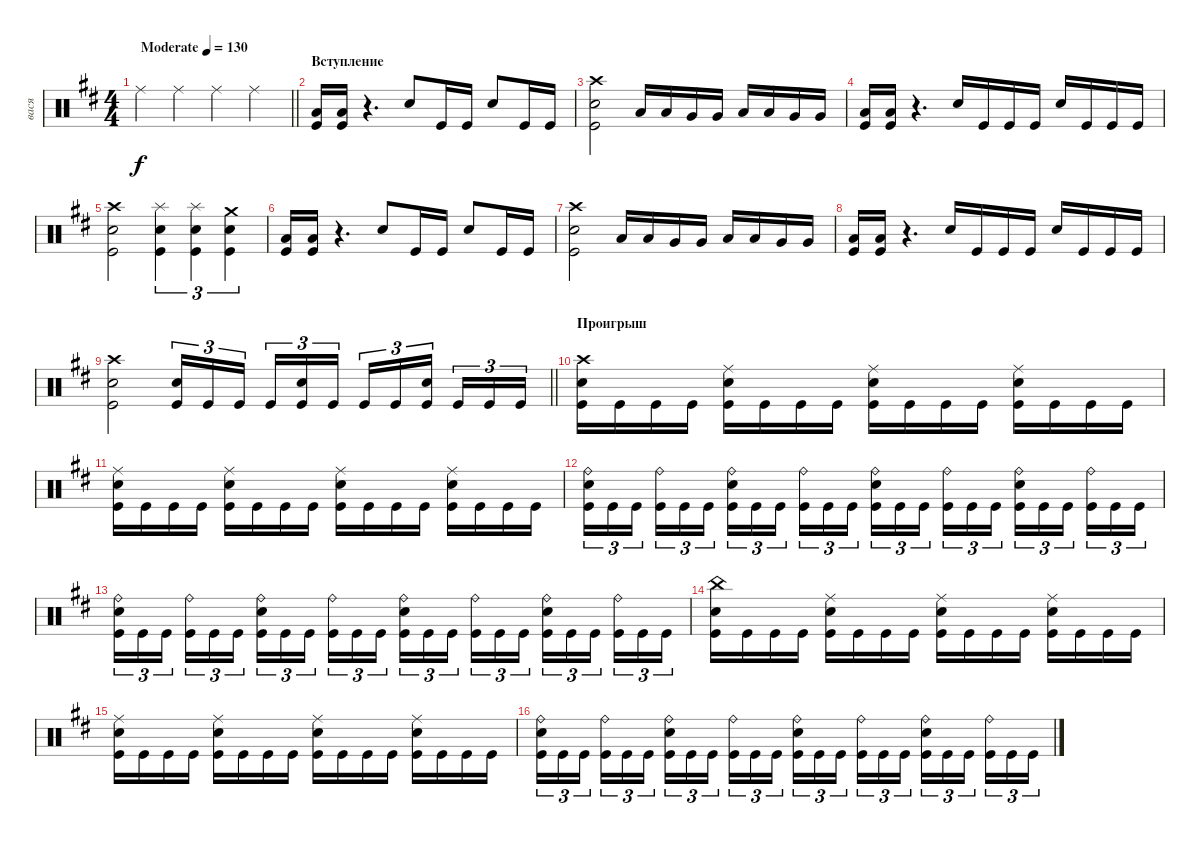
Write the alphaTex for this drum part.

\track ("вася" "вася") {instrument percussion}
\staff {score}
\articulation defaults
\ts (4 4)
\tempo (130 "Moderate")
\clef neutral
\barLineRight lightlight
\ks bminor "Ride (middle)".4{dy f} "Ride (middle)".4 "Ride (middle)".4 "Ride (middle)".4
|
\section ("" "Вступление")
("Low Floor Tom (hit)" "Kick (hit)").16 ("Low Floor Tom (hit)" "Kick (hit)").16 r.4{d} "Electric Snare (hit)".8 "Kick (hit)".16 "Kick (hit)".16 "Electric Snare (hit)".8 "Kick (hit)".16 "Kick (hit)".16 |
("Crash high (hit)" "Electric Snare (hit)" "Kick (hit)").2 "Low Floor Tom (hit)".16 "Low Floor Tom (hit)".16 "Very Low Tom (hit)".16 "Very Low Tom (hit)".16 "Low Tom (hit)".16 "Low Tom (hit)".16 "Very Low Tom (hit)".16 "Very Low Tom (hit)".16 |
("Low Floor Tom (hit)" "Kick (hit)").16 ("Low Floor Tom (hit)" "Kick (hit)").16 r.4{d} "Electric Snare (hit)".16 "Kick (hit)".16 "Kick (hit)".16 "Kick (hit)".16 "Electric Snare (hit)".16 "Kick (hit)".16 "Kick (hit)".16 "Kick (hit)".16 |
("Crash high (hit)" "Electric Snare (hit)" "Kick (hit)").2 ("Splash (hit)" "Electric Snare (hit)" "Kick (hit)").4{tu (3 2)} ("Splash (hit)" "Electric Snare (hit)" "Kick (hit)").4{tu (3 2)} ("Crash medium (hit)" "Electric Snare (hit)" "Kick (hit)").4{tu (3 2)} |
("Low Floor Tom (hit)" "Kick (hit)").16 ("Low Floor Tom (hit)" "Kick (hit)").16 r.4{d} "Electric Snare (hit)".8 "Kick (hit)".16 "Kick (hit)".16 "Electric Snare (hit)".8 "Kick (hit)".16 "Kick (hit)".16 |
("Crash high (hit)" "Electric Snare (hit)" "Kick (hit)").2 "Low Floor Tom (hit)".16 "Low Floor Tom (hit)".16 "Very Low Tom (hit)".16 "Very Low Tom (hit)".16 "Low Tom (hit)".16 "Low Tom (hit)".16 "Very Low Tom (hit)".16 "Very Low Tom (hit)".16 |
("Low Floor Tom (hit)" "Kick (hit)").16 ("Low Floor Tom (hit)" "Kick (hit)").16 r.4{d} "Electric Snare (hit)".16 "Kick (hit)".16 "Kick (hit)".16 "Kick (hit)".16 "Electric Snare (hit)".16 "Kick (hit)".16 "Kick (hit)".16 "Kick (hit)".16 |
\barLineRight lightlight
("Crash high (hit)" "Electric Snare (hit)" "Kick (hit)").2 ("Electric Snare (hit)" "Kick (hit)").16{tu (3 2)} "Kick (hit)".16{tu (3 2)} "Kick (hit)".16{tu (3 2) beam splitsecondary} "Kick (hit)".16{tu (3 2)} ("Electric Snare (hit)" "Kick (hit)").16{tu (3 2)} "Kick (hit)".16{tu (3 2)} "Kick (hit)".16{tu (3 2)} "Kick (hit)".16{tu (3 2)} ("Electric Snare (hit)" "Kick (hit)").16{tu (3 2) beam splitsecondary} "Kick (hit)".16{tu (3 2)} "Kick (hit)".16{tu (3 2)} "Kick (hit)".16{tu (3 2)} |
\section ("" "Проигрыш")
("Crash high (hit)" "Electric Snare (hit)" "Kick (hit)").16 "Kick (hit)".16 "Kick (hit)".16 "Kick (hit)".16 ("Ride (middle)" "Electric Snare (hit)" "Kick (hit)").16 "Kick (hit)".16 "Kick (hit)".16 "Kick (hit)".16 ("Ride (middle)" "Electric Snare (hit)" "Kick (hit)").16 "Kick (hit)".16 "Kick (hit)".16 "Kick (hit)".16 ("Ride (middle)" "Electric Snare (hit)" "Kick (hit)").16 "Kick (hit)".16 "Kick (hit)".16 "Kick (hit)".16 |
("Ride (middle)" "Electric Snare (hit)" "Kick (hit)").16 "Kick (hit)".16 "Kick (hit)".16 "Kick (hit)".16 ("Ride (middle)" "Electric Snare (hit)" "Kick (hit)").16 "Kick (hit)".16 "Kick (hit)".16 "Kick (hit)".16 ("Ride (middle)" "Electric Snare (hit)" "Kick (hit)").16 "Kick (hit)".16 "Kick (hit)".16 "Kick (hit)".16 ("Ride (middle)" "Electric Snare (hit)" "Kick (hit)").16 "Kick (hit)".16 "Kick (hit)".16 "Kick (hit)".16 |
("Ride (bell)" "Electric Snare (hit)" "Kick (hit)").16{tu (3 2)} "Kick (hit)".16{tu (3 2)} "Kick (hit)".16{tu (3 2) beam splitsecondary} ("Ride (bell)" "Kick (hit)").16{tu (3 2)} "Kick (hit)".16{tu (3 2)} "Kick (hit)".16{tu (3 2)} ("Ride (bell)" "Electric Snare (hit)" "Kick (hit)").16{tu (3 2)} "Kick (hit)".16{tu (3 2)} "Kick (hit)".16{tu (3 2) beam splitsecondary} ("Ride (bell)" "Kick (hit)").16{tu (3 2)} "Kick (hit)".16{tu (3 2)} "Kick (hit)".16{tu (3 2)} ("Ride (bell)" "Electric Snare (hit)" "Kick (hit)").16{tu (3 2)} "Kick (hit)".16{tu (3 2)} "Kick (hit)".16{tu (3 2) beam splitsecondary} ("Ride (bell)" "Kick (hit)").16{tu (3 2)} "Kick (hit)".16{tu (3 2)} "Kick (hit)".16{tu (3 2)} ("Ride (bell)" "Electric Snare (hit)" "Kick (hit)").16{tu (3 2)} "Kick (hit)".16{tu (3 2)} "Kick (hit)".16{tu (3 2) beam splitsecondary} ("Ride (bell)" "Kick (hit)").16{tu (3 2)} "Kick (hit)".16{tu (3 2)} "Kick (hit)".16{tu (3 2)} |
("Ride (bell)" "Electric Snare (hit)" "Kick (hit)").16{tu (3 2)} "Kick (hit)".16{tu (3 2)} "Kick (hit)".16{tu (3 2) beam splitsecondary} ("Ride (bell)" "Kick (hit)").16{tu (3 2)} "Kick (hit)".16{tu (3 2)} "Kick (hit)".16{tu (3 2)} ("Ride (bell)" "Electric Snare (hit)" "Kick (hit)").16{tu (3 2)} "Kick (hit)".16{tu (3 2)} "Kick (hit)".16{tu (3 2) beam splitsecondary} ("Ride (bell)" "Kick (hit)").16{tu (3 2)} "Kick (hit)".16{tu (3 2)} "Kick (hit)".16{tu (3 2)} ("Ride (bell)" "Electric Snare (hit)" "Kick (hit)").16{tu (3 2)} "Kick (hit)".16{tu (3 2)} "Kick (hit)".16{tu (3 2) beam splitsecondary} ("Ride (bell)" "Kick (hit)").16{tu (3 2)} "Kick (hit)".16{tu (3 2)} "Kick (hit)".16{tu (3 2)} ("Ride (bell)" "Electric Snare (hit)" "Kick (hit)").16{tu (3 2)} "Kick (hit)".16{tu (3 2)} "Kick (hit)".16{tu (3 2) beam splitsecondary} ("Ride (bell)" "Kick (hit)").16{tu (3 2)} "Kick (hit)".16{tu (3 2)} "Kick (hit)".16{tu (3 2)} |
("China (hit)" "Electric Snare (hit)" "Kick (hit)").16 "Kick (hit)".16 "Kick (hit)".16 "Kick (hit)".16 ("Ride (middle)" "Electric Snare (hit)" "Kick (hit)").16 "Kick (hit)".16 "Kick (hit)".16 "Kick (hit)".16 ("Ride (middle)" "Electric Snare (hit)" "Kick (hit)").16 "Kick (hit)".16 "Kick (hit)".16 "Kick (hit)".16 ("Ride (middle)" "Electric Snare (hit)" "Kick (hit)").16 "Kick (hit)".16 "Kick (hit)".16 "Kick (hit)".16 |
("Ride (middle)" "Electric Snare (hit)" "Kick (hit)").16 "Kick (hit)".16 "Kick (hit)".16 "Kick (hit)".16 ("Ride (middle)" "Electric Snare (hit)" "Kick (hit)").16 "Kick (hit)".16 "Kick (hit)".16 "Kick (hit)".16 ("Ride (middle)" "Electric Snare (hit)" "Kick (hit)").16 "Kick (hit)".16 "Kick (hit)".16 "Kick (hit)".16 ("Ride (middle)" "Electric Snare (hit)" "Kick (hit)").16 "Kick (hit)".16 "Kick (hit)".16 "Kick (hit)".16 |
("Ride (bell)" "Electric Snare (hit)" "Kick (hit)").16{tu (3 2)} "Kick (hit)".16{tu (3 2)} "Kick (hit)".16{tu (3 2) beam splitsecondary} ("Ride (bell)" "Kick (hit)").16{tu (3 2)} "Kick (hit)".16{tu (3 2)} "Kick (hit)".16{tu (3 2)} ("Ride (bell)" "Electric Snare (hit)" "Kick (hit)").16{tu (3 2)} "Kick (hit)".16{tu (3 2)} "Kick (hit)".16{tu (3 2) beam splitsecondary} ("Ride (bell)" "Kick (hit)").16{tu (3 2)} "Kick (hit)".16{tu (3 2)} "Kick (hit)".16{tu (3 2)} ("Ride (bell)" "Electric Snare (hit)" "Kick (hit)").16{tu (3 2)} "Kick (hit)".16{tu (3 2)} "Kick (hit)".16{tu (3 2) beam splitsecondary} ("Ride (bell)" "Kick (hit)").16{tu (3 2)} "Kick (hit)".16{tu (3 2)} "Kick (hit)".16{tu (3 2)} ("Ride (bell)" "Electric Snare (hit)" "Kick (hit)").16{tu (3 2)} "Kick (hit)".16{tu (3 2)} "Kick (hit)".16{tu (3 2) beam splitsecondary} ("Ride (bell)" "Kick (hit)").16{tu (3 2)} "Kick (hit)".16{tu (3 2)} "Kick (hit)".16{tu (3 2)}
